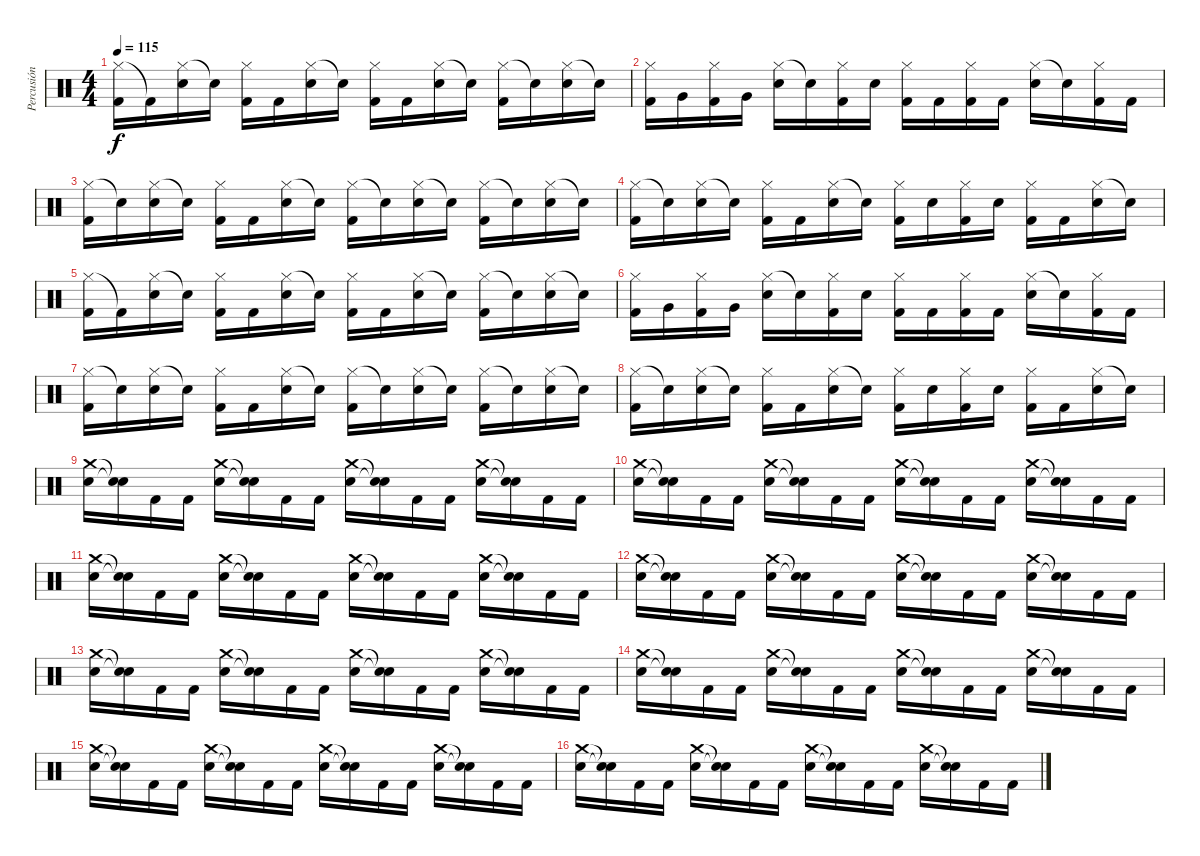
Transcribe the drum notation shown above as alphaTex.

\track ("Percusión" "Percusión") {instrument percussion}
\staff {score}
\articulation defaults
\ts (4 4)
\tempo 115
\clef neutral
\ks c
("Hi-Hat (closed)" "Kick (hit) 2").16{dy f} "Kick (hit) 2"{t}.16 ("Hi-Hat (closed)" "Electric Snare (hit)").16 "Snare (hit)"{t}.16 ("Hi-Hat (closed)" "Kick (hit) 2").16 "Kick (hit) 2".16 ("Hi-Hat (closed)" "Electric Snare (hit)").16 "Snare (hit)"{t}.16 ("Hi-Hat (closed)" "Kick (hit) 2").16 "Kick (hit) 2".16 ("Hi-Hat (closed)" "Electric Snare (hit)").16 "Snare (hit)"{t}.16 ("Hi-Hat (closed)" "Kick (hit) 2").16 "Snare (hit)"{t}.16 ("Hi-Hat (closed)" "Electric Snare (hit)").16 "Snare (hit)"{t}.16 |
("Hi-Hat (closed)" "Kick (hit) 2").16 "Very Low Tom (hit)".16 ("Hi-Hat (closed)" "Kick (hit) 2").16 "Very Low Tom (hit)".16 ("Hi-Hat (closed)" "Electric Snare (hit)").16 "Snare (hit)"{t}.16 ("Hi-Hat (closed)" "Kick (hit) 2").16 "Electric Snare (hit)".16 ("Hi-Hat (closed)" "Kick (hit) 2").16 "Kick (hit) 2".16 ("Hi-Hat (closed)" "Kick (hit) 2").16 "Kick (hit) 2".16 ("Hi-Hat (closed)" "Electric Snare (hit)").16 "Snare (hit)"{t}.16 ("Hi-Hat (closed)" "Kick (hit) 2").16 "Kick (hit) 2".16 |
("Hi-Hat (closed)" "Kick (hit) 2").16 "Snare (hit)"{t}.16 ("Hi-Hat (closed)" "Electric Snare (hit)").16 "Snare (hit)"{t}.16 ("Hi-Hat (closed)" "Kick (hit) 2").16 "Kick (hit) 2".16 ("Hi-Hat (closed)" "Electric Snare (hit)").16 "Snare (hit)"{t}.16 ("Hi-Hat (closed)" "Kick (hit) 2").16 "Snare (hit)"{t}.16 ("Hi-Hat (closed)" "Electric Snare (hit)").16 "Snare (hit)"{t}.16 ("Hi-Hat (closed)" "Kick (hit) 2").16 "Snare (hit)"{t}.16 ("Hi-Hat (closed)" "Electric Snare (hit)").16 "Snare (hit)"{t}.16 |
("Hi-Hat (closed)" "Kick (hit) 2").16 "Snare (hit)"{t}.16 ("Hi-Hat (closed)" "Electric Snare (hit)").16 "Snare (hit)"{t}.16 ("Hi-Hat (closed)" "Kick (hit) 2").16 "Kick (hit) 2".16 ("Hi-Hat (closed)" "Electric Snare (hit)").16 "Snare (hit)"{t}.16 ("Hi-Hat (closed)" "Kick (hit) 2").16 "Electric Snare (hit)".16 ("Hi-Hat (closed)" "Kick (hit) 2").16 "Electric Snare (hit)".16 ("Hi-Hat (closed)" "Kick (hit) 2").16 "Kick (hit) 2".16 ("Hi-Hat (closed)" "Electric Snare (hit)").16 "Snare (hit)"{t}.16 |
("Hi-Hat (closed)" "Kick (hit) 2").16 "Kick (hit) 2"{t}.16 ("Hi-Hat (closed)" "Electric Snare (hit)").16 "Snare (hit)"{t}.16 ("Hi-Hat (closed)" "Kick (hit) 2").16 "Kick (hit) 2".16 ("Hi-Hat (closed)" "Electric Snare (hit)").16 "Snare (hit)"{t}.16 ("Hi-Hat (closed)" "Kick (hit) 2").16 "Kick (hit) 2".16 ("Hi-Hat (closed)" "Electric Snare (hit)").16 "Snare (hit)"{t}.16 ("Hi-Hat (closed)" "Kick (hit) 2").16 "Snare (hit)"{t}.16 ("Hi-Hat (closed)" "Electric Snare (hit)").16 "Snare (hit)"{t}.16 |
("Hi-Hat (closed)" "Kick (hit) 2").16 "Very Low Tom (hit)".16 ("Hi-Hat (closed)" "Kick (hit) 2").16 "Very Low Tom (hit)".16 ("Hi-Hat (closed)" "Electric Snare (hit)").16 "Snare (hit)"{t}.16 ("Hi-Hat (closed)" "Kick (hit) 2").16 "Electric Snare (hit)".16 ("Hi-Hat (closed)" "Kick (hit) 2").16 "Kick (hit) 2".16 ("Hi-Hat (closed)" "Kick (hit) 2").16 "Kick (hit) 2".16 ("Hi-Hat (closed)" "Electric Snare (hit)").16 "Snare (hit)"{t}.16 ("Hi-Hat (closed)" "Kick (hit) 2").16 "Kick (hit) 2".16 |
("Hi-Hat (closed)" "Kick (hit) 2").16 "Snare (hit)"{t}.16 ("Hi-Hat (closed)" "Electric Snare (hit)").16 "Snare (hit)"{t}.16 ("Hi-Hat (closed)" "Kick (hit) 2").16 "Kick (hit) 2".16 ("Hi-Hat (closed)" "Electric Snare (hit)").16 "Snare (hit)"{t}.16 ("Hi-Hat (closed)" "Kick (hit) 2").16 "Snare (hit)"{t}.16 ("Hi-Hat (closed)" "Electric Snare (hit)").16 "Snare (hit)"{t}.16 ("Hi-Hat (closed)" "Kick (hit) 2").16 "Snare (hit)"{t}.16 ("Hi-Hat (closed)" "Electric Snare (hit)").16 "Snare (hit)"{t}.16 |
("Hi-Hat (closed)" "Kick (hit) 2").16 "Snare (hit)"{t}.16 ("Hi-Hat (closed)" "Electric Snare (hit)").16 "Snare (hit)"{t}.16 ("Hi-Hat (closed)" "Kick (hit) 2").16 "Kick (hit) 2".16 ("Hi-Hat (closed)" "Electric Snare (hit)").16 "Snare (hit)"{t}.16 ("Hi-Hat (closed)" "Kick (hit) 2").16 "Electric Snare (hit)".16 ("Hi-Hat (closed)" "Kick (hit) 2").16 "Electric Snare (hit)".16 ("Hi-Hat (closed)" "Kick (hit) 2").16 "Kick (hit) 2".16 ("Hi-Hat (closed)" "Electric Snare (hit)").16 "Snare (hit)"{t}.16 |
("Crash medium (hit)" "Electric Snare (hit)").16 ("Snare (hit)"{t} "Snare (hit)"{t}).16 "Kick (hit) 2".16 "Kick (hit) 2".16 ("Crash medium (hit)" "Electric Snare (hit)").16 ("Snare (hit)"{t} "Snare (hit)"{t}).16 "Kick (hit) 2".16 "Kick (hit) 2".16 ("Crash medium (hit)" "Electric Snare (hit)").16 ("Snare (hit)"{t} "Snare (hit)"{t}).16 "Kick (hit) 2".16 "Kick (hit) 2".16 ("Crash medium (hit)" "Electric Snare (hit)").16 ("Snare (hit)"{t} "Snare (hit)"{t}).16 "Kick (hit) 2".16 "Kick (hit) 2".16 |
("Crash medium (hit)" "Electric Snare (hit)").16 ("Snare (hit)"{t} "Snare (hit)"{t}).16 "Kick (hit) 2".16 "Kick (hit) 2".16 ("Crash medium (hit)" "Electric Snare (hit)").16 ("Snare (hit)"{t} "Snare (hit)"{t}).16 "Kick (hit) 2".16 "Kick (hit) 2".16 ("Crash medium (hit)" "Electric Snare (hit)").16 ("Snare (hit)"{t} "Snare (hit)"{t}).16 "Kick (hit) 2".16 "Kick (hit) 2".16 ("Crash medium (hit)" "Electric Snare (hit)").16 ("Snare (hit)"{t} "Snare (hit)"{t}).16 "Kick (hit) 2".16 "Kick (hit) 2".16 |
("Crash medium (hit)" "Electric Snare (hit)").16 ("Snare (hit)"{t} "Snare (hit)"{t}).16 "Kick (hit) 2".16 "Kick (hit) 2".16 ("Crash medium (hit)" "Electric Snare (hit)").16 ("Snare (hit)"{t} "Snare (hit)"{t}).16 "Kick (hit) 2".16 "Kick (hit) 2".16 ("Crash medium (hit)" "Electric Snare (hit)").16 ("Snare (hit)"{t} "Snare (hit)"{t}).16 "Kick (hit) 2".16 "Kick (hit) 2".16 ("Crash medium (hit)" "Electric Snare (hit)").16 ("Snare (hit)"{t} "Snare (hit)"{t}).16 "Kick (hit) 2".16 "Kick (hit) 2".16 |
("Crash medium (hit)" "Electric Snare (hit)").16 ("Snare (hit)"{t} "Snare (hit)"{t}).16 "Kick (hit) 2".16 "Kick (hit) 2".16 ("Crash medium (hit)" "Electric Snare (hit)").16 ("Snare (hit)"{t} "Snare (hit)"{t}).16 "Kick (hit) 2".16 "Kick (hit) 2".16 ("Crash medium (hit)" "Electric Snare (hit)").16 ("Snare (hit)"{t} "Snare (hit)"{t}).16 "Kick (hit) 2".16 "Kick (hit) 2".16 ("Crash medium (hit)" "Electric Snare (hit)").16 ("Snare (hit)"{t} "Snare (hit)"{t}).16 "Kick (hit) 2".16 "Kick (hit) 2".16 |
("Crash medium (hit)" "Electric Snare (hit)").16 ("Snare (hit)"{t} "Snare (hit)"{t}).16 "Kick (hit) 2".16 "Kick (hit) 2".16 ("Crash medium (hit)" "Electric Snare (hit)").16 ("Snare (hit)"{t} "Snare (hit)"{t}).16 "Kick (hit) 2".16 "Kick (hit) 2".16 ("Crash medium (hit)" "Electric Snare (hit)").16 ("Snare (hit)"{t} "Snare (hit)"{t}).16 "Kick (hit) 2".16 "Kick (hit) 2".16 ("Crash medium (hit)" "Electric Snare (hit)").16 ("Snare (hit)"{t} "Snare (hit)"{t}).16 "Kick (hit) 2".16 "Kick (hit) 2".16 |
("Crash medium (hit)" "Electric Snare (hit)").16 ("Snare (hit)"{t} "Snare (hit)"{t}).16 "Kick (hit) 2".16 "Kick (hit) 2".16 ("Crash medium (hit)" "Electric Snare (hit)").16 ("Snare (hit)"{t} "Snare (hit)"{t}).16 "Kick (hit) 2".16 "Kick (hit) 2".16 ("Crash medium (hit)" "Electric Snare (hit)").16 ("Snare (hit)"{t} "Snare (hit)"{t}).16 "Kick (hit) 2".16 "Kick (hit) 2".16 ("Crash medium (hit)" "Electric Snare (hit)").16 ("Snare (hit)"{t} "Snare (hit)"{t}).16 "Kick (hit) 2".16 "Kick (hit) 2".16 |
("Crash medium (hit)" "Electric Snare (hit)").16 ("Snare (hit)"{t} "Snare (hit)"{t}).16 "Kick (hit) 2".16 "Kick (hit) 2".16 ("Crash medium (hit)" "Electric Snare (hit)").16 ("Snare (hit)"{t} "Snare (hit)"{t}).16 "Kick (hit) 2".16 "Kick (hit) 2".16 ("Crash medium (hit)" "Electric Snare (hit)").16 ("Snare (hit)"{t} "Snare (hit)"{t}).16 "Kick (hit) 2".16 "Kick (hit) 2".16 ("Crash medium (hit)" "Electric Snare (hit)").16 ("Snare (hit)"{t} "Snare (hit)"{t}).16 "Kick (hit) 2".16 "Kick (hit) 2".16 |
("Crash medium (hit)" "Electric Snare (hit)").16 ("Snare (hit)"{t} "Snare (hit)"{t}).16 "Kick (hit) 2".16 "Kick (hit) 2".16 ("Crash medium (hit)" "Electric Snare (hit)").16 ("Snare (hit)"{t} "Snare (hit)"{t}).16 "Kick (hit) 2".16 "Kick (hit) 2".16 ("Crash medium (hit)" "Electric Snare (hit)").16 ("Snare (hit)"{t} "Snare (hit)"{t}).16 "Kick (hit) 2".16 "Kick (hit) 2".16 ("Crash medium (hit)" "Electric Snare (hit)").16 ("Snare (hit)"{t} "Snare (hit)"{t}).16 "Kick (hit) 2".16 "Kick (hit) 2".16
